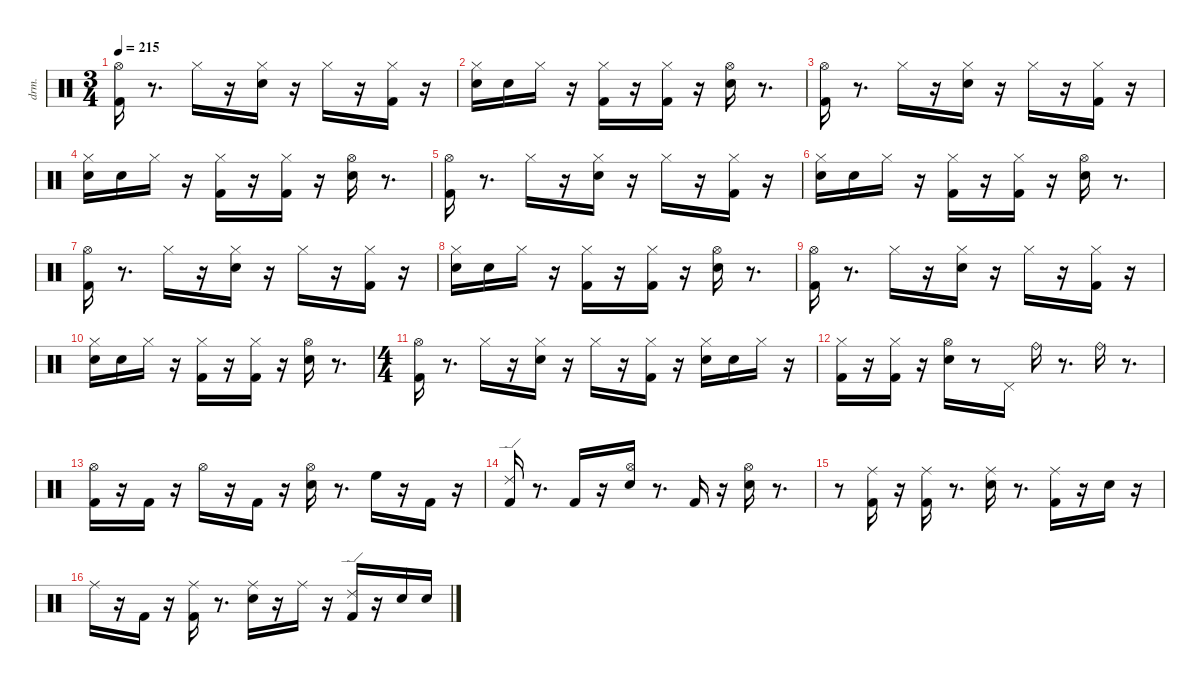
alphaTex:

\defaultSystemsLayout 4
\hideDynamics
\bracketExtendMode nobrackets
\otherSystemsTrackNameOrientation horizontal
\track ("drums(暫定)" "drm.") {instrument percussion}
\staff {score}
\articulation defaults
\ts (3 4)
\tempo 215
\clef neutral
\ks aminor
("Kick (hit) 2" "Hi-Hat (open)"{acc #}).16{dy fff beam Down} r.8{d beam Down} "Hi-Hat (closed)"{acc #}.16{dy f beam Down} r.16{beam Down} ("Snare (hit) 2" "Hi-Hat (closed)"{acc #}).16{dy ff beam Down} r.16{beam Down} "Hi-Hat (closed)"{acc #}.16{beam Down} r.16{beam Down} ("Kick (hit) 2" "Hi-Hat (closed)"{acc #}).16{beam Down} r.16{beam Down} |
("Snare (hit) 2" "Hi-Hat (closed)"{acc #}).16{dy p beam Down} "Snare (hit) 2".16{dy ppp beam Down} "Hi-Hat (closed)"{acc #}.16{beam Down} r.16{beam Down} ("Kick (hit) 2" "Hi-Hat (closed)"{acc #}).16{dy p beam Down} r.16{beam Down} ("Kick (hit) 2" "Hi-Hat (closed)"{acc #}).16{dy f beam Down} r.16{beam Down} ("Snare (hit) 2" "Hi-Hat (open)"{acc #}).16{dy ff beam Down} r.8{d beam Down} |
("Kick (hit) 2" "Hi-Hat (open)"{acc #}).16{dy fff beam Down} r.8{d beam Down} "Hi-Hat (closed)"{acc #}.16{dy f beam Down} r.16{beam Down} ("Snare (hit) 2" "Hi-Hat (closed)"{acc #}).16{dy ff beam Down} r.16{beam Down} "Hi-Hat (closed)"{acc #}.16{beam Down} r.16{beam Down} ("Kick (hit) 2" "Hi-Hat (closed)"{acc #}).16{beam Down} r.16{beam Down} |
("Snare (hit) 2" "Hi-Hat (closed)"{acc #}).16{dy p beam Down} "Snare (hit) 2".16{dy ppp beam Down} "Hi-Hat (closed)"{acc #}.16{beam Down} r.16{beam Down} ("Kick (hit) 2" "Hi-Hat (closed)"{acc #}).16{dy p beam Down} r.16{beam Down} ("Kick (hit) 2" "Hi-Hat (closed)"{acc #}).16{dy f beam Down} r.16{beam Down} ("Snare (hit) 2" "Hi-Hat (open)"{acc #}).16{dy ff beam Down} r.8{d beam Down} |
("Kick (hit) 2" "Hi-Hat (open)"{acc #}).16{dy fff beam Down} r.8{d beam Down} "Hi-Hat (closed)"{acc #}.16{dy f beam Down} r.16{beam Down} ("Snare (hit) 2" "Hi-Hat (closed)"{acc #}).16{dy ff beam Down} r.16{beam Down} "Hi-Hat (closed)"{acc #}.16{beam Down} r.16{beam Down} ("Kick (hit) 2" "Hi-Hat (closed)"{acc #}).16{beam Down} r.16{beam Down} |
("Snare (hit) 2" "Hi-Hat (closed)"{acc #}).16{dy p beam Down} "Snare (hit) 2".16{dy ppp beam Down} "Hi-Hat (closed)"{acc #}.16{beam Down} r.16{beam Down} ("Kick (hit) 2" "Hi-Hat (closed)"{acc #}).16{dy p beam Down} r.16{beam Down} ("Kick (hit) 2" "Hi-Hat (closed)"{acc #}).16{dy f beam Down} r.16{beam Down} ("Snare (hit) 2" "Hi-Hat (open)"{acc #}).16{dy ff beam Down} r.8{d beam Down} |
("Kick (hit) 2" "Hi-Hat (open)"{acc #}).16{dy fff beam Down} r.8{d beam Down} "Hi-Hat (closed)"{acc #}.16{dy f beam Down} r.16{beam Down} ("Snare (hit) 2" "Hi-Hat (closed)"{acc #}).16{dy ff beam Down} r.16{beam Down} "Hi-Hat (closed)"{acc #}.16{beam Down} r.16{beam Down} ("Kick (hit) 2" "Hi-Hat (closed)"{acc #}).16{beam Down} r.16{beam Down} |
("Snare (hit) 2" "Hi-Hat (closed)"{acc #}).16{dy p beam Down} "Snare (hit) 2".16{dy ppp beam Down} "Hi-Hat (closed)"{acc #}.16{beam Down} r.16{beam Down} ("Kick (hit) 2" "Hi-Hat (closed)"{acc #}).16{dy p beam Down} r.16{beam Down} ("Kick (hit) 2" "Hi-Hat (closed)"{acc #}).16{dy f beam Down} r.16{beam Down} ("Snare (hit) 2" "Hi-Hat (open)"{acc #}).16{dy ff beam Down} r.8{d beam Down} |
("Kick (hit) 2" "Hi-Hat (open)"{acc #}).16{dy fff beam Down} r.8{d beam Down} "Hi-Hat (closed)"{acc #}.16{dy f beam Down} r.16{beam Down} ("Snare (hit) 2" "Hi-Hat (closed)"{acc #}).16{dy ff beam Down} r.16{beam Down} "Hi-Hat (closed)"{acc #}.16{beam Down} r.16{beam Down} ("Kick (hit) 2" "Hi-Hat (closed)"{acc #}).16{beam Down} r.16{beam Down} |
("Snare (hit) 2" "Hi-Hat (closed)"{acc #}).16{dy p beam Down} "Snare (hit) 2".16{dy ppp beam Down} "Hi-Hat (closed)"{acc #}.16{beam Down} r.16{beam Down} ("Kick (hit) 2" "Hi-Hat (closed)"{acc #}).16{dy p beam Down} r.16{beam Down} ("Kick (hit) 2" "Hi-Hat (closed)"{acc #}).16{dy f beam Down} r.16{beam Down} ("Snare (hit) 2" "Hi-Hat (open)"{acc #}).16{dy ff beam Down} r.8{d beam Down} |
\ts (4 4)
("Kick (hit) 2" "Hi-Hat (open)"{acc #}).16{dy fff beam Down} r.8{d beam Down} "Hi-Hat (closed)"{acc #}.16{dy f beam Down} r.16{beam Down} ("Snare (hit) 2" "Hi-Hat (closed)"{acc #}).16{dy ff beam Down} r.16{beam Down} "Hi-Hat (closed)"{acc #}.16{beam Down} r.16{beam Down} ("Kick (hit) 2" "Hi-Hat (closed)"{acc #}).16{beam Down} r.16{beam Down} ("Snare (hit) 2" "Hi-Hat (closed)"{acc #}).16{dy p beam Down} "Snare (hit) 2".16{dy ppp beam Down} "Hi-Hat (closed)"{acc #}.16{beam Down} r.16{beam Down} |
("Kick (hit) 2" "Hi-Hat (closed)"{acc #}).16{dy p beam Down} r.16{beam Down} ("Kick (hit) 2" "Hi-Hat (closed)"{acc #}).16{dy f beam Down} r.16{beam Down} ("Snare (hit) 2" "Hi-Hat (open)"{acc #}).16{dy ff beam Down} r.8{beam Down} "Pedal Hi-Hat (hit)"{acc #}.16{dy mf beam Up} "Ride (bell)".16{dy fff beam Down} r.8{d beam Down} "Ride (bell)".16{beam Down} r.8{d beam Down} |
("Kick (hit) 2" "Hi-Hat (open)"{acc #}).16{dy f beam Down} r.16{beam Down} "Kick (hit) 2".16{dy fff beam Up} r.16{beam Up} "Hi-Hat (open)"{acc #}.16{dy mp beam Down} r.16{beam Down} "Kick (hit) 2".16{dy ff beam Up} r.16{beam Up} ("Snare (hit) 2" "Hi-Hat (open)"{acc #}).16{beam Down} r.8{d beam Down} "High Floor Tom (hit)".16{beam Down} r.16{beam Down} "Kick (hit) 2".16{dy f beam Up} r.16{beam Up} |
("Kick (hit) 2" "Ride (edge) 2").16{dy fff beam Up} r.8{d beam Up} "Kick (hit) 2".16{dy ff beam Up} r.16{beam Up} ("Snare (hit) 2" "Hi-Hat (open)"{acc #}).16{beam Down} r.8{d beam Down} "Kick (hit) 2".16{beam Up} r.16{beam Up} ("Snare (hit) 2" "Hi-Hat (open)"{acc #}).16{beam Down} r.8{d beam Down} |
r.8{beam Down} ("Kick (hit) 2" "Ride (middle)"{acc #}).16{dy f beam Down} r.16{beam Down} ("Kick (hit) 2" "Ride (middle)"{acc #}).16{dy fff beam Down} r.8{d beam Down} ("Snare (hit) 2" "Ride (middle)"{acc #}).16{dy ff beam Down} r.8{d beam Down} ("Kick (hit) 2" "Ride (middle)"{acc #}).16{beam Down} r.16{beam Down} "Snare (hit) 2".16{beam Down} r.16{beam Down} |
"Ride (middle)"{acc #}.16{dy fff beam Down} r.16{beam Down} "Kick (hit) 2".16{dy ff beam Up} r.16{beam Up} ("Kick (hit) 2" "Ride (middle)"{acc #}).16{beam Down} r.8{d beam Down} ("Snare (hit) 2" "Ride (middle)"{acc #}).16{beam Down} r.16{beam Down} "Ride (middle)"{acc #}.16{dy ppp beam Down} r.16{beam Down} ("Kick (hit) 2" "Ride (edge) 2").16{dy ff beam Up} r.16{beam Up} "Snare (hit) 2".16{dy mp beam Down} "Snare (hit) 2".16{dy pp beam Down}
